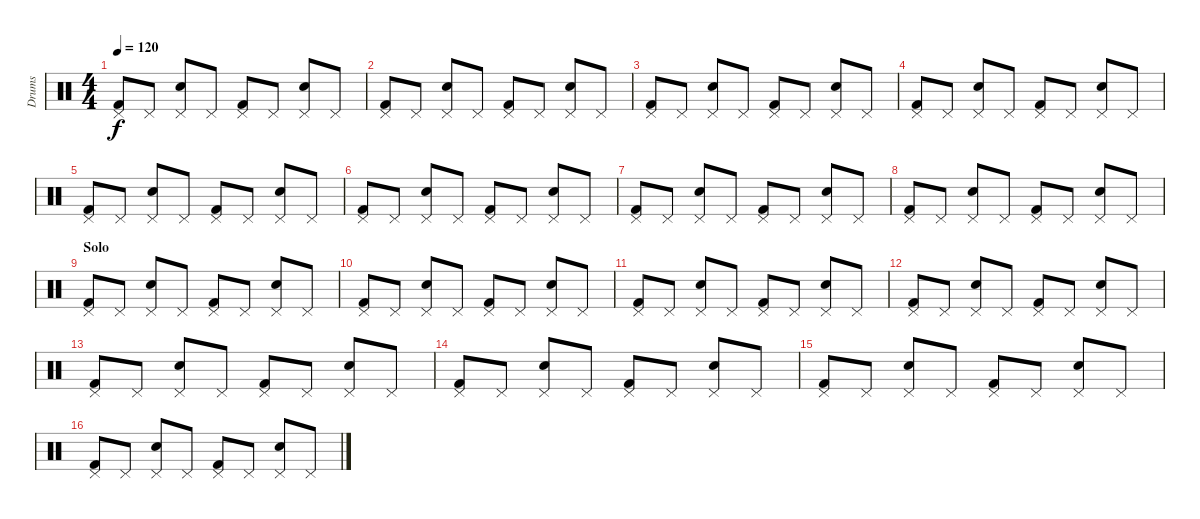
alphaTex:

\track ("Drums" "Drums") {instrument percussion}
\staff {score}
\articulation defaults
\ts (4 4)
\tempo 120
\clef neutral
\ks c
("Pedal Hi-Hat (hit)" "Kick (hit) 2").8{dy f} "Pedal Hi-Hat (hit)".8 ("Pedal Hi-Hat (hit)" "Snare (hit) 2").8 "Pedal Hi-Hat (hit)".8 ("Pedal Hi-Hat (hit)" "Kick (hit) 2").8 "Pedal Hi-Hat (hit)".8 ("Pedal Hi-Hat (hit)" "Snare (hit) 2").8 "Pedal Hi-Hat (hit)".8 |
("Pedal Hi-Hat (hit)" "Kick (hit) 2").8 "Pedal Hi-Hat (hit)".8 ("Pedal Hi-Hat (hit)" "Snare (hit) 2").8 "Pedal Hi-Hat (hit)".8 ("Pedal Hi-Hat (hit)" "Kick (hit) 2").8 "Pedal Hi-Hat (hit)".8 ("Pedal Hi-Hat (hit)" "Snare (hit) 2").8 "Pedal Hi-Hat (hit)".8 |
("Pedal Hi-Hat (hit)" "Kick (hit) 2").8 "Pedal Hi-Hat (hit)".8 ("Pedal Hi-Hat (hit)" "Snare (hit) 2").8 "Pedal Hi-Hat (hit)".8 ("Pedal Hi-Hat (hit)" "Kick (hit) 2").8 "Pedal Hi-Hat (hit)".8 ("Pedal Hi-Hat (hit)" "Snare (hit) 2").8 "Pedal Hi-Hat (hit)".8 |
("Pedal Hi-Hat (hit)" "Kick (hit) 2").8 "Pedal Hi-Hat (hit)".8 ("Pedal Hi-Hat (hit)" "Snare (hit) 2").8 "Pedal Hi-Hat (hit)".8 ("Pedal Hi-Hat (hit)" "Kick (hit) 2").8 "Pedal Hi-Hat (hit)".8 ("Pedal Hi-Hat (hit)" "Snare (hit) 2").8 "Pedal Hi-Hat (hit)".8 |
("Pedal Hi-Hat (hit)" "Kick (hit) 2").8 "Pedal Hi-Hat (hit)".8 ("Pedal Hi-Hat (hit)" "Snare (hit) 2").8 "Pedal Hi-Hat (hit)".8 ("Pedal Hi-Hat (hit)" "Kick (hit) 2").8 "Pedal Hi-Hat (hit)".8 ("Pedal Hi-Hat (hit)" "Snare (hit) 2").8 "Pedal Hi-Hat (hit)".8 |
("Pedal Hi-Hat (hit)" "Kick (hit) 2").8 "Pedal Hi-Hat (hit)".8 ("Pedal Hi-Hat (hit)" "Snare (hit) 2").8 "Pedal Hi-Hat (hit)".8 ("Pedal Hi-Hat (hit)" "Kick (hit) 2").8 "Pedal Hi-Hat (hit)".8 ("Pedal Hi-Hat (hit)" "Snare (hit) 2").8 "Pedal Hi-Hat (hit)".8 |
("Pedal Hi-Hat (hit)" "Kick (hit) 2").8 "Pedal Hi-Hat (hit)".8 ("Pedal Hi-Hat (hit)" "Snare (hit) 2").8 "Pedal Hi-Hat (hit)".8 ("Pedal Hi-Hat (hit)" "Kick (hit) 2").8 "Pedal Hi-Hat (hit)".8 ("Pedal Hi-Hat (hit)" "Snare (hit) 2").8 "Pedal Hi-Hat (hit)".8 |
("Pedal Hi-Hat (hit)" "Kick (hit) 2").8 "Pedal Hi-Hat (hit)".8 ("Pedal Hi-Hat (hit)" "Snare (hit) 2").8 "Pedal Hi-Hat (hit)".8 ("Pedal Hi-Hat (hit)" "Kick (hit) 2").8 "Pedal Hi-Hat (hit)".8 ("Pedal Hi-Hat (hit)" "Snare (hit) 2").8 "Pedal Hi-Hat (hit)".8 |
\section ("" "Solo")
("Pedal Hi-Hat (hit)" "Kick (hit) 2").8 "Pedal Hi-Hat (hit)".8 ("Pedal Hi-Hat (hit)" "Electric Snare (hit)").8 "Pedal Hi-Hat (hit)".8 ("Pedal Hi-Hat (hit)" "Kick (hit) 2").8 "Pedal Hi-Hat (hit)".8 ("Pedal Hi-Hat (hit)" "Electric Snare (hit)").8 "Pedal Hi-Hat (hit)".8 |
("Pedal Hi-Hat (hit)" "Kick (hit) 2").8 "Pedal Hi-Hat (hit)".8 ("Pedal Hi-Hat (hit)" "Electric Snare (hit)").8 "Pedal Hi-Hat (hit)".8 ("Pedal Hi-Hat (hit)" "Kick (hit) 2").8 "Pedal Hi-Hat (hit)".8 ("Pedal Hi-Hat (hit)" "Electric Snare (hit)").8 "Pedal Hi-Hat (hit)".8 |
("Pedal Hi-Hat (hit)" "Kick (hit) 2").8 "Pedal Hi-Hat (hit)".8 ("Pedal Hi-Hat (hit)" "Electric Snare (hit)").8 "Pedal Hi-Hat (hit)".8 ("Pedal Hi-Hat (hit)" "Kick (hit) 2").8 "Pedal Hi-Hat (hit)".8 ("Pedal Hi-Hat (hit)" "Electric Snare (hit)").8 "Pedal Hi-Hat (hit)".8 |
("Pedal Hi-Hat (hit)" "Kick (hit) 2").8 "Pedal Hi-Hat (hit)".8 ("Pedal Hi-Hat (hit)" "Electric Snare (hit)").8 "Pedal Hi-Hat (hit)".8 ("Pedal Hi-Hat (hit)" "Kick (hit) 2").8 "Pedal Hi-Hat (hit)".8 ("Pedal Hi-Hat (hit)" "Electric Snare (hit)").8 "Pedal Hi-Hat (hit)".8 |
("Pedal Hi-Hat (hit)" "Kick (hit) 2").8 "Pedal Hi-Hat (hit)".8 ("Pedal Hi-Hat (hit)" "Electric Snare (hit)").8 "Pedal Hi-Hat (hit)".8 ("Pedal Hi-Hat (hit)" "Kick (hit) 2").8 "Pedal Hi-Hat (hit)".8 ("Pedal Hi-Hat (hit)" "Electric Snare (hit)").8 "Pedal Hi-Hat (hit)".8 |
("Pedal Hi-Hat (hit)" "Kick (hit) 2").8 "Pedal Hi-Hat (hit)".8 ("Pedal Hi-Hat (hit)" "Electric Snare (hit)").8 "Pedal Hi-Hat (hit)".8 ("Pedal Hi-Hat (hit)" "Kick (hit) 2").8 "Pedal Hi-Hat (hit)".8 ("Pedal Hi-Hat (hit)" "Electric Snare (hit)").8 "Pedal Hi-Hat (hit)".8 |
("Pedal Hi-Hat (hit)" "Kick (hit) 2").8 "Pedal Hi-Hat (hit)".8 ("Pedal Hi-Hat (hit)" "Electric Snare (hit)").8 "Pedal Hi-Hat (hit)".8 ("Pedal Hi-Hat (hit)" "Kick (hit) 2").8 "Pedal Hi-Hat (hit)".8 ("Pedal Hi-Hat (hit)" "Electric Snare (hit)").8 "Pedal Hi-Hat (hit)".8 |
("Pedal Hi-Hat (hit)" "Kick (hit) 2").8 "Pedal Hi-Hat (hit)".8 ("Pedal Hi-Hat (hit)" "Electric Snare (hit)").8 "Pedal Hi-Hat (hit)".8 ("Pedal Hi-Hat (hit)" "Kick (hit) 2").8 "Pedal Hi-Hat (hit)".8 ("Pedal Hi-Hat (hit)" "Electric Snare (hit)").8 "Pedal Hi-Hat (hit)".8
